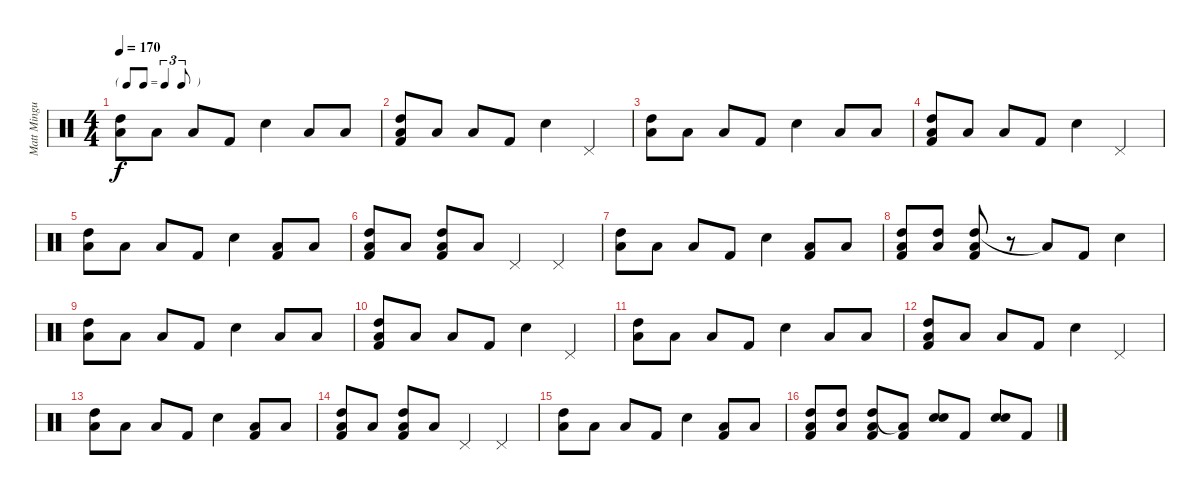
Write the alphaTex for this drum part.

\track ("Matt Mingus" "Matt Mingu") {instrument percussion}
\staff {score}
\articulation defaults
\ts (4 4)
\tf triplet8th
\tempo 170
\clef neutral
\ks c
("High Tom (hit)" "Low Floor Tom (hit)").8{dy f} "Low Floor Tom (hit)".8 "Low Floor Tom (hit)".8 "Kick (hit) 2".8 "Electric Snare (hit)".4 "Low Floor Tom (hit)".8 "Low Floor Tom (hit)".8 |
("High Tom (hit)" "Low Floor Tom (hit)" "Kick (hit) 2").8 "Low Floor Tom (hit)".8 "Low Floor Tom (hit)".8 "Kick (hit) 2".8 "Electric Snare (hit)".4 "Pedal Hi-Hat (hit)".4 |
("High Tom (hit)" "Low Floor Tom (hit)").8 "Low Floor Tom (hit)".8 "Low Floor Tom (hit)".8 "Kick (hit) 2".8 "Electric Snare (hit)".4 "Low Floor Tom (hit)".8 "Low Floor Tom (hit)".8 |
("High Tom (hit)" "Low Floor Tom (hit)" "Kick (hit) 2").8 "Low Floor Tom (hit)".8 "Low Floor Tom (hit)".8 "Kick (hit) 2".8 "Electric Snare (hit)".4 "Pedal Hi-Hat (hit)".4 |
("High Tom (hit)" "Low Floor Tom (hit)").8 "Low Floor Tom (hit)".8 "Low Floor Tom (hit)".8 "Kick (hit) 2".8 "Electric Snare (hit)".4 ("Low Floor Tom (hit)" "Kick (hit) 2").8 "Low Floor Tom (hit)".8 |
("High Tom (hit)" "Low Floor Tom (hit)" "Kick (hit) 2").8 "Low Floor Tom (hit)".8 ("High Tom (hit)" "Low Floor Tom (hit)" "Kick (hit) 2").8 "Low Floor Tom (hit)".8 "Pedal Hi-Hat (hit)".4 "Pedal Hi-Hat (hit)".4 |
("High Tom (hit)" "Low Floor Tom (hit)").8 "Low Floor Tom (hit)".8 "Low Floor Tom (hit)".8 "Kick (hit) 2".8 "Electric Snare (hit)".4 ("Low Floor Tom (hit)" "Kick (hit) 2").8 "Low Floor Tom (hit)".8 |
("High Tom (hit)" "Low Floor Tom (hit)" "Kick (hit) 2").8 ("High Tom (hit)" "Low Floor Tom (hit)").8 ("High Tom (hit)" "Low Floor Tom (hit)" "Kick (hit) 2").8 r.8 "Low Floor Tom (hit)"{t}.8 "Kick (hit) 2".8 "Electric Snare (hit)".4 |
("High Tom (hit)" "Low Floor Tom (hit)").8 "Low Floor Tom (hit)".8 "Low Floor Tom (hit)".8 "Kick (hit) 2".8 "Electric Snare (hit)".4 "Low Floor Tom (hit)".8 "Low Floor Tom (hit)".8 |
("High Tom (hit)" "Low Floor Tom (hit)" "Kick (hit) 2").8 "Low Floor Tom (hit)".8 "Low Floor Tom (hit)".8 "Kick (hit) 2".8 "Electric Snare (hit)".4 "Pedal Hi-Hat (hit)".4 |
("High Tom (hit)" "Low Floor Tom (hit)").8 "Low Floor Tom (hit)".8 "Low Floor Tom (hit)".8 "Kick (hit) 2".8 "Electric Snare (hit)".4 "Low Floor Tom (hit)".8 "Low Floor Tom (hit)".8 |
("High Tom (hit)" "Low Floor Tom (hit)" "Kick (hit) 2").8 "Low Floor Tom (hit)".8 "Low Floor Tom (hit)".8 "Kick (hit) 2".8 "Electric Snare (hit)".4 "Pedal Hi-Hat (hit)".4 |
("High Tom (hit)" "Low Floor Tom (hit)").8 "Low Floor Tom (hit)".8 "Low Floor Tom (hit)".8 "Kick (hit) 2".8 "Electric Snare (hit)".4 ("Low Floor Tom (hit)" "Kick (hit) 2").8 "Low Floor Tom (hit)".8 |
("High Tom (hit)" "Low Floor Tom (hit)" "Kick (hit) 2").8 "Low Floor Tom (hit)".8 ("High Tom (hit)" "Low Floor Tom (hit)" "Kick (hit) 2").8 "Low Floor Tom (hit)".8 "Pedal Hi-Hat (hit)".4 "Pedal Hi-Hat (hit)".4 |
("High Tom (hit)" "Low Floor Tom (hit)").8 "Low Floor Tom (hit)".8 "Low Floor Tom (hit)".8 "Kick (hit) 2".8 "Electric Snare (hit)".4 ("Low Floor Tom (hit)" "Kick (hit) 2").8 "Low Floor Tom (hit)".8 |
("High Tom (hit)" "Low Floor Tom (hit)" "Kick (hit) 2").8 ("High Tom (hit)" "Low Floor Tom (hit)").8 ("High Tom (hit)" "Low Floor Tom (hit)" "Kick (hit) 2").8 ("Low Floor Tom (hit)"{t} "Kick (hit) 2").8 ("Snare (hit) 2" "Electric Snare (hit)").8 "Kick (hit) 2".8 ("Snare (hit) 2" "Electric Snare (hit)").8 "Kick (hit) 2".8
